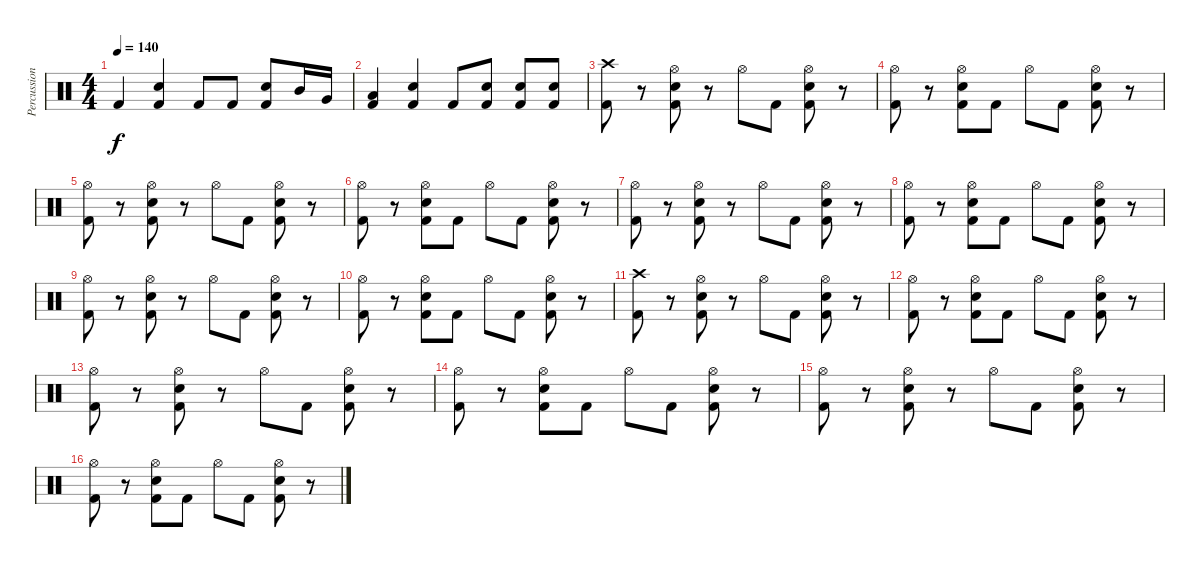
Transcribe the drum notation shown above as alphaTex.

\track ("Percussion" "Percussion") {instrument percussion}
\staff {score}
\articulation defaults
\ts (4 4)
\tempo 140
\clef neutral
\ks c "Kick (hit) 2".4{dy f}
("Snare (hit) 2" "Kick (hit) 2").4 "Kick (hit) 2".8 "Kick (hit) 2".8 ("Snare (hit) 2" "Kick (hit) 2").8 "Mid Tom (hit)".16 "Very Low Tom (hit)".16 |
("Low Floor Tom (hit)" "Kick (hit) 2").4 ("Snare (hit) 2" "Kick (hit) 2").4 "Kick (hit) 2".8 ("Snare (hit) 2" "Kick (hit) 2").8 ("Snare (hit) 2" "Kick (hit) 2").8 ("Snare (hit) 2" "Kick (hit) 2").8 |
("Crash high (hit)" "Kick (hit) 2").8 r.8 ("Snare (hit) 2" "Hi-Hat (open)" "Kick (hit) 2").8 r.8 "Hi-Hat (open)".8 "Kick (hit) 2".8 ("Snare (hit) 2" "Hi-Hat (open)" "Kick (hit) 2").8 r.8 |
("Hi-Hat (open)" "Kick (hit) 2").8 r.8 ("Snare (hit) 2" "Hi-Hat (open)" "Kick (hit) 2").8 "Kick (hit) 2".8 "Hi-Hat (open)".8 "Kick (hit) 2".8 ("Snare (hit) 2" "Hi-Hat (open)" "Kick (hit) 2").8 r.8 |
("Hi-Hat (open)" "Kick (hit) 2").8 r.8 ("Snare (hit) 2" "Hi-Hat (open)" "Kick (hit) 2").8 r.8 "Hi-Hat (open)".8 "Kick (hit) 2".8 ("Snare (hit) 2" "Hi-Hat (open)" "Kick (hit) 2").8 r.8 |
("Hi-Hat (open)" "Kick (hit) 2").8 r.8 ("Snare (hit) 2" "Hi-Hat (open)" "Kick (hit) 2").8 "Kick (hit) 2".8 "Hi-Hat (open)".8 "Kick (hit) 2".8 ("Snare (hit) 2" "Hi-Hat (open)" "Kick (hit) 2").8 r.8 |
("Hi-Hat (open)" "Kick (hit) 2").8 r.8 ("Snare (hit) 2" "Hi-Hat (open)" "Kick (hit) 2").8 r.8 "Hi-Hat (open)".8 "Kick (hit) 2".8 ("Snare (hit) 2" "Hi-Hat (open)" "Kick (hit) 2").8 r.8 |
("Hi-Hat (open)" "Kick (hit) 2").8 r.8 ("Snare (hit) 2" "Hi-Hat (open)" "Kick (hit) 2").8 "Kick (hit) 2".8 "Hi-Hat (open)".8 "Kick (hit) 2".8 ("Snare (hit) 2" "Hi-Hat (open)" "Kick (hit) 2").8 r.8 |
("Hi-Hat (open)" "Kick (hit) 2").8 r.8 ("Snare (hit) 2" "Hi-Hat (open)" "Kick (hit) 2").8 r.8 "Hi-Hat (open)".8 "Kick (hit) 2".8 ("Snare (hit) 2" "Hi-Hat (open)" "Kick (hit) 2").8 r.8 |
("Hi-Hat (open)" "Kick (hit) 2").8 r.8 ("Snare (hit) 2" "Hi-Hat (open)" "Kick (hit) 2").8 "Kick (hit) 2".8 "Hi-Hat (open)".8 "Kick (hit) 2".8 ("Snare (hit) 2" "Hi-Hat (open)" "Kick (hit) 2").8 r.8 |
("Crash high (hit)" "Kick (hit) 2").8 r.8 ("Snare (hit) 2" "Hi-Hat (open)" "Kick (hit) 2").8 r.8 "Hi-Hat (open)".8 "Kick (hit) 2".8 ("Snare (hit) 2" "Hi-Hat (open)" "Kick (hit) 2").8 r.8 |
("Hi-Hat (open)" "Kick (hit) 2").8 r.8 ("Snare (hit) 2" "Hi-Hat (open)" "Kick (hit) 2").8 "Kick (hit) 2".8 "Hi-Hat (open)".8 "Kick (hit) 2".8 ("Snare (hit) 2" "Hi-Hat (open)" "Kick (hit) 2").8 r.8 |
("Hi-Hat (open)" "Kick (hit) 2").8 r.8 ("Snare (hit) 2" "Hi-Hat (open)" "Kick (hit) 2").8 r.8 "Hi-Hat (open)".8 "Kick (hit) 2".8 ("Snare (hit) 2" "Hi-Hat (open)" "Kick (hit) 2").8 r.8 |
("Hi-Hat (open)" "Kick (hit) 2").8 r.8 ("Snare (hit) 2" "Hi-Hat (open)" "Kick (hit) 2").8 "Kick (hit) 2".8 "Hi-Hat (open)".8 "Kick (hit) 2".8 ("Snare (hit) 2" "Hi-Hat (open)" "Kick (hit) 2").8 r.8 |
("Hi-Hat (open)" "Kick (hit) 2").8 r.8 ("Snare (hit) 2" "Hi-Hat (open)" "Kick (hit) 2").8 r.8 "Hi-Hat (open)".8 "Kick (hit) 2".8 ("Snare (hit) 2" "Hi-Hat (open)" "Kick (hit) 2").8 r.8 |
("Hi-Hat (open)" "Kick (hit) 2").8 r.8 ("Snare (hit) 2" "Hi-Hat (open)" "Kick (hit) 2").8 "Kick (hit) 2".8 "Hi-Hat (open)".8 "Kick (hit) 2".8 ("Snare (hit) 2" "Hi-Hat (open)" "Kick (hit) 2").8 r.8
